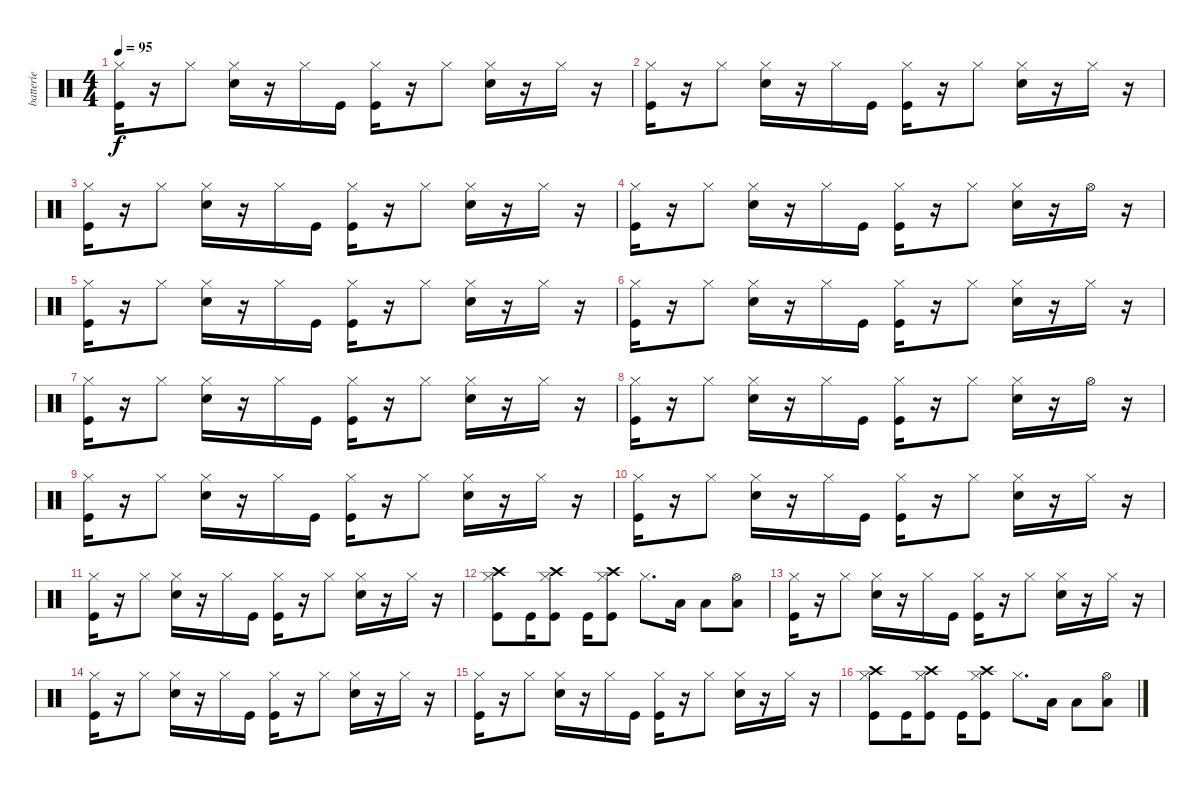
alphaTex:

\track ("batterie" "batterie") {instrument percussion}
\staff {score}
\articulation defaults
\ts (4 4)
\tempo 95
\clef neutral
\ks c
("Kick (hit)" "Hi-Hat (closed)").16{dy f} r.16 "Hi-Hat (closed)".8 ("Snare (hit) 2" "Hi-Hat (closed)").16 r.16 "Hi-Hat (closed)".16 "Kick (hit)".16 ("Kick (hit)" "Hi-Hat (closed)").16 r.16 "Hi-Hat (closed)".8 ("Snare (hit) 2" "Hi-Hat (closed)").16 r.16 "Hi-Hat (closed)".16 r.16 |
("Kick (hit)" "Hi-Hat (closed)").16 r.16 "Hi-Hat (closed)".8 ("Snare (hit) 2" "Hi-Hat (closed)").16 r.16 "Hi-Hat (closed)".16 "Kick (hit)".16 ("Kick (hit)" "Hi-Hat (closed)").16 r.16 "Hi-Hat (closed)".8 ("Snare (hit) 2" "Hi-Hat (closed)").16 r.16 "Hi-Hat (closed)".16 r.16 |
("Kick (hit)" "Hi-Hat (closed)").16 r.16 "Hi-Hat (closed)".8 ("Snare (hit) 2" "Hi-Hat (closed)").16 r.16 "Hi-Hat (closed)".16 "Kick (hit)".16 ("Kick (hit)" "Hi-Hat (closed)").16 r.16 "Hi-Hat (closed)".8 ("Snare (hit) 2" "Hi-Hat (closed)").16 r.16 "Hi-Hat (closed)".16 r.16 |
("Kick (hit)" "Hi-Hat (closed)").16 r.16 "Hi-Hat (closed)".8 ("Snare (hit) 2" "Hi-Hat (closed)").16 r.16 "Hi-Hat (closed)".16 "Kick (hit)".16 ("Kick (hit)" "Hi-Hat (closed)").16 r.16 "Hi-Hat (closed)".8 ("Snare (hit) 2" "Hi-Hat (closed)").16 r.16 "Hi-Hat (open)".16 r.16 |
("Kick (hit)" "Hi-Hat (closed)").16 r.16 "Hi-Hat (closed)".8 ("Snare (hit) 2" "Hi-Hat (closed)").16 r.16 "Hi-Hat (closed)".16 "Kick (hit)".16 ("Kick (hit)" "Hi-Hat (closed)").16 r.16 "Hi-Hat (closed)".8 ("Snare (hit) 2" "Hi-Hat (closed)").16 r.16 "Hi-Hat (closed)".16 r.16 |
("Kick (hit)" "Hi-Hat (closed)").16 r.16 "Hi-Hat (closed)".8 ("Snare (hit) 2" "Hi-Hat (closed)").16 r.16 "Hi-Hat (closed)".16 "Kick (hit)".16 ("Kick (hit)" "Hi-Hat (closed)").16 r.16 "Hi-Hat (closed)".8 ("Snare (hit) 2" "Hi-Hat (closed)").16 r.16 "Hi-Hat (closed)".16 r.16 |
("Kick (hit)" "Hi-Hat (closed)").16 r.16 "Hi-Hat (closed)".8 ("Snare (hit) 2" "Hi-Hat (closed)").16 r.16 "Hi-Hat (closed)".16 "Kick (hit)".16 ("Kick (hit)" "Hi-Hat (closed)").16 r.16 "Hi-Hat (closed)".8 ("Snare (hit) 2" "Hi-Hat (closed)").16 r.16 "Hi-Hat (closed)".16 r.16 |
("Kick (hit)" "Hi-Hat (closed)").16 r.16 "Hi-Hat (closed)".8 ("Snare (hit) 2" "Hi-Hat (closed)").16 r.16 "Hi-Hat (closed)".16 "Kick (hit)".16 ("Kick (hit)" "Hi-Hat (closed)").16 r.16 "Hi-Hat (closed)".8 ("Snare (hit) 2" "Hi-Hat (closed)").16 r.16 "Hi-Hat (open)".16 r.16 |
("Kick (hit)" "Hi-Hat (closed)").16 r.16 "Hi-Hat (closed)".8 ("Snare (hit) 2" "Hi-Hat (closed)").16 r.16 "Hi-Hat (closed)".16 "Kick (hit)".16 ("Kick (hit)" "Hi-Hat (closed)").16 r.16 "Hi-Hat (closed)".8 ("Snare (hit) 2" "Hi-Hat (closed)").16 r.16 "Hi-Hat (closed)".16 r.16 |
("Kick (hit)" "Hi-Hat (closed)").16 r.16 "Hi-Hat (closed)".8 ("Snare (hit) 2" "Hi-Hat (closed)").16 r.16 "Hi-Hat (closed)".16 "Kick (hit)".16 ("Kick (hit)" "Hi-Hat (closed)").16 r.16 "Hi-Hat (closed)".8 ("Snare (hit) 2" "Hi-Hat (closed)").16 r.16 "Hi-Hat (closed)".16 r.16 |
("Kick (hit)" "Hi-Hat (closed)").16 r.16 "Hi-Hat (closed)".8 ("Snare (hit) 2" "Hi-Hat (closed)").16 r.16 "Hi-Hat (closed)".16 "Kick (hit)".16 ("Kick (hit)" "Hi-Hat (closed)").16 r.16 "Hi-Hat (closed)".8 ("Snare (hit) 2" "Hi-Hat (closed)").16 r.16 "Hi-Hat (closed)".16 r.16 |
("Kick (hit)" "Hi-Hat (closed)" "Crash high (hit)").8 "Kick (hit)".16 ("Crash high (hit)" "Hi-Hat (closed)" "Kick (hit)").8 "Kick (hit)".16 ("Crash high (hit)" "Hi-Hat (closed)" "Kick (hit)").8 "Hi-Hat (closed)".8{d} "Low Tom (hit)".16 "Low Tom (hit)".8 ("Hi-Hat (open)" "Low Floor Tom (hit)").8 |
("Kick (hit)" "Hi-Hat (closed)").16 r.16 "Hi-Hat (closed)".8 ("Snare (hit) 2" "Hi-Hat (closed)").16 r.16 "Hi-Hat (closed)".16 "Kick (hit)".16 ("Kick (hit)" "Hi-Hat (closed)").16 r.16 "Hi-Hat (closed)".8 ("Snare (hit) 2" "Hi-Hat (closed)").16 r.16 "Hi-Hat (closed)".16 r.16 |
("Kick (hit)" "Hi-Hat (closed)").16 r.16 "Hi-Hat (closed)".8 ("Snare (hit) 2" "Hi-Hat (closed)").16 r.16 "Hi-Hat (closed)".16 "Kick (hit)".16 ("Kick (hit)" "Hi-Hat (closed)").16 r.16 "Hi-Hat (closed)".8 ("Snare (hit) 2" "Hi-Hat (closed)").16 r.16 "Hi-Hat (closed)".16 r.16 |
("Kick (hit)" "Hi-Hat (closed)").16 r.16 "Hi-Hat (closed)".8 ("Snare (hit) 2" "Hi-Hat (closed)").16 r.16 "Hi-Hat (closed)".16 "Kick (hit)".16 ("Kick (hit)" "Hi-Hat (closed)").16 r.16 "Hi-Hat (closed)".8 ("Snare (hit) 2" "Hi-Hat (closed)").16 r.16 "Hi-Hat (closed)".16 r.16 |
("Kick (hit)" "Hi-Hat (closed)" "Crash high (hit)").8 "Kick (hit)".16 ("Crash high (hit)" "Hi-Hat (closed)" "Kick (hit)").8 "Kick (hit)".16 ("Crash high (hit)" "Hi-Hat (closed)" "Kick (hit)").8 "Hi-Hat (closed)".8{d} "Low Tom (hit)".16 "Low Tom (hit)".8 ("Hi-Hat (open)" "Low Floor Tom (hit)").8
